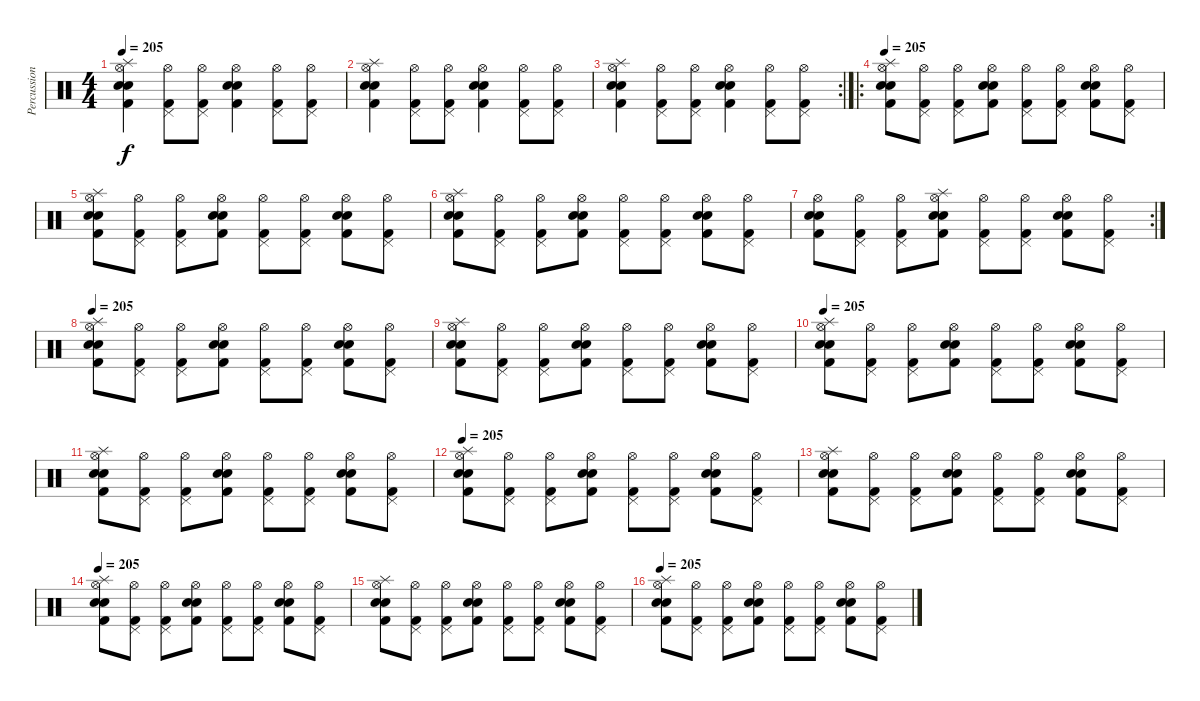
\track ("Percussions" "Percussion") {instrument percussion}
\staff {score}
\articulation defaults
\ts (4 4)
\tempo 205
\clef neutral
\ks c
("Splash (hit)" "Hi-Hat (open)" "Kick (hit) 2" "Snare (hit) 2" "Electric Snare (hit)").4{dy f} ("Hi-Hat (open)" "Pedal Hi-Hat (hit)" "Kick (hit) 2").8 ("Hi-Hat (open)" "Pedal Hi-Hat (hit)" "Kick (hit) 2").8 ("Hi-Hat (open)" "Kick (hit) 2" "Snare (hit) 2" "Electric Snare (hit)").4 ("Hi-Hat (open)" "Pedal Hi-Hat (hit)" "Kick (hit) 2").8 ("Hi-Hat (open)" "Pedal Hi-Hat (hit)" "Kick (hit) 2").8 |
("Splash (hit)" "Hi-Hat (open)" "Kick (hit) 2" "Snare (hit) 2" "Electric Snare (hit)").4 ("Hi-Hat (open)" "Pedal Hi-Hat (hit)" "Kick (hit) 2").8 ("Hi-Hat (open)" "Pedal Hi-Hat (hit)" "Kick (hit) 2").8 ("Hi-Hat (open)" "Kick (hit) 2" "Snare (hit) 2" "Electric Snare (hit)").4 ("Hi-Hat (open)" "Pedal Hi-Hat (hit)" "Kick (hit) 2").8 ("Hi-Hat (open)" "Pedal Hi-Hat (hit)" "Kick (hit) 2").8 |
\rc 2
("Splash (hit)" "Hi-Hat (open)" "Kick (hit) 2" "Snare (hit) 2" "Electric Snare (hit)").4 ("Hi-Hat (open)" "Pedal Hi-Hat (hit)" "Kick (hit) 2").8 ("Hi-Hat (open)" "Pedal Hi-Hat (hit)" "Kick (hit) 2").8 ("Hi-Hat (open)" "Kick (hit) 2" "Snare (hit) 2" "Electric Snare (hit)").4 ("Hi-Hat (open)" "Pedal Hi-Hat (hit)" "Kick (hit) 2").8 ("Hi-Hat (open)" "Pedal Hi-Hat (hit)" "Kick (hit) 2").8 |
\ro
\tempo 205
("Splash (hit)" "Hi-Hat (open)" "Kick (hit) 2" "Snare (hit) 2" "Electric Snare (hit)").8 ("Hi-Hat (open)" "Pedal Hi-Hat (hit)" "Kick (hit) 2").8 ("Hi-Hat (open)" "Pedal Hi-Hat (hit)" "Kick (hit) 2").8 ("Hi-Hat (open)" "Kick (hit) 2" "Snare (hit) 2" "Electric Snare (hit)").8 ("Hi-Hat (open)" "Pedal Hi-Hat (hit)" "Kick (hit) 2").8 ("Hi-Hat (open)" "Pedal Hi-Hat (hit)" "Kick (hit) 2").8 ("Hi-Hat (open)" "Kick (hit) 2" "Snare (hit) 2" "Electric Snare (hit)").8 ("Hi-Hat (open)" "Pedal Hi-Hat (hit)" "Kick (hit) 2").8 |
("Splash (hit)" "Hi-Hat (open)" "Kick (hit) 2" "Snare (hit) 2" "Electric Snare (hit)").8 ("Hi-Hat (open)" "Pedal Hi-Hat (hit)" "Kick (hit) 2").8 ("Hi-Hat (open)" "Pedal Hi-Hat (hit)" "Kick (hit) 2").8 ("Hi-Hat (open)" "Kick (hit) 2" "Snare (hit) 2" "Electric Snare (hit)").8 ("Hi-Hat (open)" "Pedal Hi-Hat (hit)" "Kick (hit) 2").8 ("Hi-Hat (open)" "Pedal Hi-Hat (hit)" "Kick (hit) 2").8 ("Hi-Hat (open)" "Kick (hit) 2" "Snare (hit) 2" "Electric Snare (hit)").8 ("Hi-Hat (open)" "Pedal Hi-Hat (hit)" "Kick (hit) 2").8 |
("Splash (hit)" "Hi-Hat (open)" "Kick (hit) 2" "Snare (hit) 2" "Electric Snare (hit)").8 ("Hi-Hat (open)" "Pedal Hi-Hat (hit)" "Kick (hit) 2").8 ("Hi-Hat (open)" "Pedal Hi-Hat (hit)" "Kick (hit) 2").8 ("Hi-Hat (open)" "Kick (hit) 2" "Snare (hit) 2" "Electric Snare (hit)").8 ("Hi-Hat (open)" "Pedal Hi-Hat (hit)" "Kick (hit) 2").8 ("Hi-Hat (open)" "Pedal Hi-Hat (hit)" "Kick (hit) 2").8 ("Hi-Hat (open)" "Kick (hit) 2" "Snare (hit) 2" "Electric Snare (hit)").8 ("Hi-Hat (open)" "Pedal Hi-Hat (hit)" "Kick (hit) 2").8 |
\rc 2
("Hi-Hat (open)" "Kick (hit) 2" "Snare (hit) 2" "Electric Snare (hit)").8 ("Hi-Hat (open)" "Pedal Hi-Hat (hit)" "Kick (hit) 2").8 ("Hi-Hat (open)" "Pedal Hi-Hat (hit)" "Kick (hit) 2").8 ("Splash (hit)" "Hi-Hat (open)" "Kick (hit) 2" "Snare (hit) 2" "Electric Snare (hit)").8 ("Hi-Hat (open)" "Pedal Hi-Hat (hit)" "Kick (hit) 2").8 ("Hi-Hat (open)" "Pedal Hi-Hat (hit)" "Kick (hit) 2").8 ("Hi-Hat (open)" "Kick (hit) 2" "Snare (hit) 2" "Electric Snare (hit)").8 ("Hi-Hat (open)" "Pedal Hi-Hat (hit)" "Kick (hit) 2").8 |
\tempo 205
("Splash (hit)" "Hi-Hat (open)" "Kick (hit) 2" "Snare (hit) 2" "Electric Snare (hit)").8 ("Hi-Hat (open)" "Pedal Hi-Hat (hit)" "Kick (hit) 2").8 ("Hi-Hat (open)" "Pedal Hi-Hat (hit)" "Kick (hit) 2").8 ("Hi-Hat (open)" "Kick (hit) 2" "Snare (hit) 2" "Electric Snare (hit)").8 ("Hi-Hat (open)" "Pedal Hi-Hat (hit)" "Kick (hit) 2").8 ("Hi-Hat (open)" "Pedal Hi-Hat (hit)" "Kick (hit) 2").8 ("Hi-Hat (open)" "Kick (hit) 2" "Snare (hit) 2" "Electric Snare (hit)").8 ("Hi-Hat (open)" "Pedal Hi-Hat (hit)" "Kick (hit) 2").8 |
("Splash (hit)" "Hi-Hat (open)" "Kick (hit) 2" "Snare (hit) 2" "Electric Snare (hit)").8 ("Hi-Hat (open)" "Pedal Hi-Hat (hit)" "Kick (hit) 2").8 ("Hi-Hat (open)" "Pedal Hi-Hat (hit)" "Kick (hit) 2").8 ("Hi-Hat (open)" "Kick (hit) 2" "Snare (hit) 2" "Electric Snare (hit)").8 ("Hi-Hat (open)" "Pedal Hi-Hat (hit)" "Kick (hit) 2").8 ("Hi-Hat (open)" "Pedal Hi-Hat (hit)" "Kick (hit) 2").8 ("Hi-Hat (open)" "Kick (hit) 2" "Snare (hit) 2" "Electric Snare (hit)").8 ("Hi-Hat (open)" "Pedal Hi-Hat (hit)" "Kick (hit) 2").8 |
\tempo 205
("Splash (hit)" "Hi-Hat (open)" "Kick (hit) 2" "Snare (hit) 2" "Electric Snare (hit)").8 ("Hi-Hat (open)" "Pedal Hi-Hat (hit)" "Kick (hit) 2").8 ("Hi-Hat (open)" "Pedal Hi-Hat (hit)" "Kick (hit) 2").8 ("Hi-Hat (open)" "Kick (hit) 2" "Snare (hit) 2" "Electric Snare (hit)").8 ("Hi-Hat (open)" "Pedal Hi-Hat (hit)" "Kick (hit) 2").8 ("Hi-Hat (open)" "Pedal Hi-Hat (hit)" "Kick (hit) 2").8 ("Hi-Hat (open)" "Kick (hit) 2" "Snare (hit) 2" "Electric Snare (hit)").8 ("Hi-Hat (open)" "Pedal Hi-Hat (hit)" "Kick (hit) 2").8 |
("Splash (hit)" "Hi-Hat (open)" "Kick (hit) 2" "Snare (hit) 2" "Electric Snare (hit)").8 ("Hi-Hat (open)" "Pedal Hi-Hat (hit)" "Kick (hit) 2").8 ("Hi-Hat (open)" "Pedal Hi-Hat (hit)" "Kick (hit) 2").8 ("Hi-Hat (open)" "Kick (hit) 2" "Snare (hit) 2" "Electric Snare (hit)").8 ("Hi-Hat (open)" "Pedal Hi-Hat (hit)" "Kick (hit) 2").8 ("Hi-Hat (open)" "Pedal Hi-Hat (hit)" "Kick (hit) 2").8 ("Hi-Hat (open)" "Kick (hit) 2" "Snare (hit) 2" "Electric Snare (hit)").8 ("Hi-Hat (open)" "Pedal Hi-Hat (hit)" "Kick (hit) 2").8 |
\tempo 205
("Splash (hit)" "Hi-Hat (open)" "Kick (hit) 2" "Snare (hit) 2" "Electric Snare (hit)").8 ("Hi-Hat (open)" "Pedal Hi-Hat (hit)" "Kick (hit) 2").8 ("Hi-Hat (open)" "Pedal Hi-Hat (hit)" "Kick (hit) 2").8 ("Hi-Hat (open)" "Kick (hit) 2" "Snare (hit) 2" "Electric Snare (hit)").8 ("Hi-Hat (open)" "Pedal Hi-Hat (hit)" "Kick (hit) 2").8 ("Hi-Hat (open)" "Pedal Hi-Hat (hit)" "Kick (hit) 2").8 ("Hi-Hat (open)" "Kick (hit) 2" "Snare (hit) 2" "Electric Snare (hit)").8 ("Hi-Hat (open)" "Pedal Hi-Hat (hit)" "Kick (hit) 2").8 |
("Splash (hit)" "Hi-Hat (open)" "Kick (hit) 2" "Snare (hit) 2" "Electric Snare (hit)").8 ("Hi-Hat (open)" "Pedal Hi-Hat (hit)" "Kick (hit) 2").8 ("Hi-Hat (open)" "Pedal Hi-Hat (hit)" "Kick (hit) 2").8 ("Hi-Hat (open)" "Kick (hit) 2" "Snare (hit) 2" "Electric Snare (hit)").8 ("Hi-Hat (open)" "Pedal Hi-Hat (hit)" "Kick (hit) 2").8 ("Hi-Hat (open)" "Pedal Hi-Hat (hit)" "Kick (hit) 2").8 ("Hi-Hat (open)" "Kick (hit) 2" "Snare (hit) 2" "Electric Snare (hit)").8 ("Hi-Hat (open)" "Pedal Hi-Hat (hit)" "Kick (hit) 2").8 |
\tempo 205
("Splash (hit)" "Hi-Hat (open)" "Kick (hit) 2" "Snare (hit) 2" "Electric Snare (hit)").8 ("Hi-Hat (open)" "Pedal Hi-Hat (hit)" "Kick (hit) 2").8 ("Hi-Hat (open)" "Pedal Hi-Hat (hit)" "Kick (hit) 2").8 ("Hi-Hat (open)" "Kick (hit) 2" "Snare (hit) 2" "Electric Snare (hit)").8 ("Hi-Hat (open)" "Pedal Hi-Hat (hit)" "Kick (hit) 2").8 ("Hi-Hat (open)" "Pedal Hi-Hat (hit)" "Kick (hit) 2").8 ("Hi-Hat (open)" "Kick (hit) 2" "Snare (hit) 2" "Electric Snare (hit)").8 ("Hi-Hat (open)" "Pedal Hi-Hat (hit)" "Kick (hit) 2").8 |
("Splash (hit)" "Hi-Hat (open)" "Kick (hit) 2" "Snare (hit) 2" "Electric Snare (hit)").8 ("Hi-Hat (open)" "Pedal Hi-Hat (hit)" "Kick (hit) 2").8 ("Hi-Hat (open)" "Pedal Hi-Hat (hit)" "Kick (hit) 2").8 ("Hi-Hat (open)" "Kick (hit) 2" "Snare (hit) 2" "Electric Snare (hit)").8 ("Hi-Hat (open)" "Pedal Hi-Hat (hit)" "Kick (hit) 2").8 ("Hi-Hat (open)" "Pedal Hi-Hat (hit)" "Kick (hit) 2").8 ("Hi-Hat (open)" "Kick (hit) 2" "Snare (hit) 2" "Electric Snare (hit)").8 ("Hi-Hat (open)" "Pedal Hi-Hat (hit)" "Kick (hit) 2").8 |
\tempo 205
("Splash (hit)" "Hi-Hat (open)" "Kick (hit) 2" "Snare (hit) 2" "Electric Snare (hit)").8 ("Hi-Hat (open)" "Pedal Hi-Hat (hit)" "Kick (hit) 2").8 ("Hi-Hat (open)" "Pedal Hi-Hat (hit)" "Kick (hit) 2").8 ("Hi-Hat (open)" "Kick (hit) 2" "Snare (hit) 2" "Electric Snare (hit)").8 ("Hi-Hat (open)" "Pedal Hi-Hat (hit)" "Kick (hit) 2").8 ("Hi-Hat (open)" "Pedal Hi-Hat (hit)" "Kick (hit) 2").8 ("Hi-Hat (open)" "Kick (hit) 2" "Snare (hit) 2" "Electric Snare (hit)").8 ("Hi-Hat (open)" "Pedal Hi-Hat (hit)" "Kick (hit) 2").8
